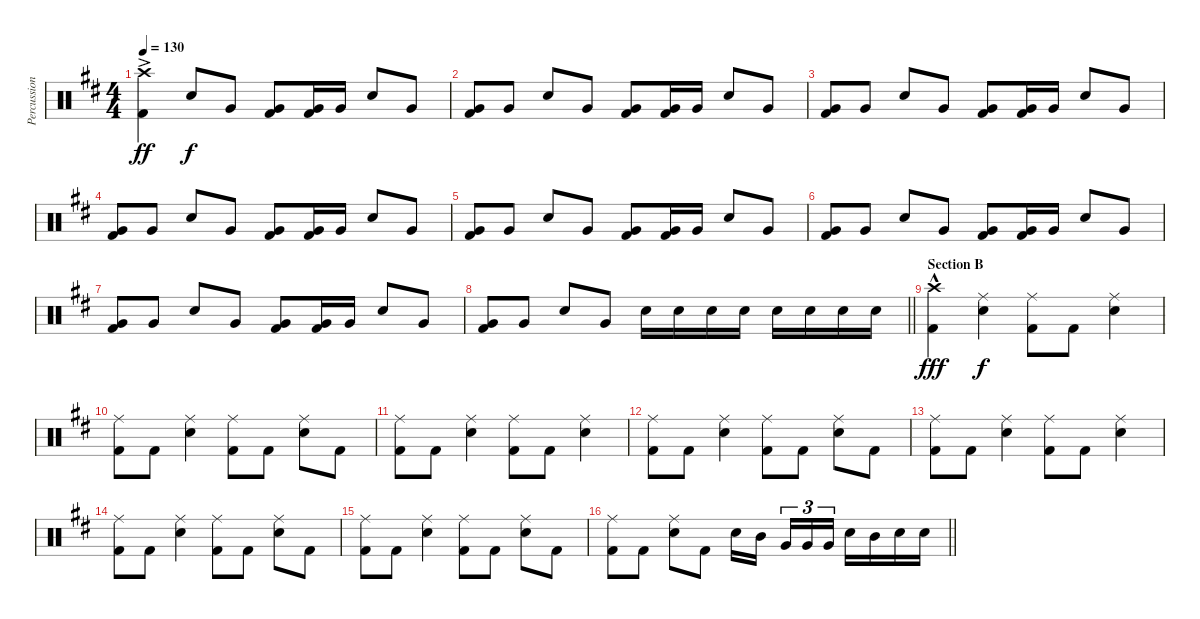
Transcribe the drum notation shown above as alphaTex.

\track ("Percussion" "Percussion") {instrument percussion}
\staff {score}
\articulation defaults
\ts (4 4)
\tempo 130
\clef neutral
\ks d
("Crash high (hit)"{ac} "Kick (hit) 2").4{dy ff} "Snare (hit) 2".8{dy f} "Very Low Tom (hit)".8 ("Very Low Tom (hit)" "Kick (hit) 2").8 ("Very Low Tom (hit)" "Kick (hit) 2").16 "Very Low Tom (hit)".16 "Snare (hit) 2".8 "Very Low Tom (hit)".8 |
("Very Low Tom (hit)" "Kick (hit) 2").8 "Very Low Tom (hit)".8 "Snare (hit) 2".8 "Very Low Tom (hit)".8 ("Very Low Tom (hit)" "Kick (hit) 2").8 ("Very Low Tom (hit)" "Kick (hit) 2").16 "Very Low Tom (hit)".16 "Snare (hit) 2".8 "Very Low Tom (hit)".8 |
("Very Low Tom (hit)" "Kick (hit) 2").8 "Very Low Tom (hit)".8 "Snare (hit) 2".8 "Very Low Tom (hit)".8 ("Very Low Tom (hit)" "Kick (hit) 2").8 ("Very Low Tom (hit)" "Kick (hit) 2").16 "Very Low Tom (hit)".16 "Snare (hit) 2".8 "Very Low Tom (hit)".8 |
("Very Low Tom (hit)" "Kick (hit) 2").8 "Very Low Tom (hit)".8 "Snare (hit) 2".8 "Very Low Tom (hit)".8 ("Very Low Tom (hit)" "Kick (hit) 2").8 ("Very Low Tom (hit)" "Kick (hit) 2").16 "Very Low Tom (hit)".16 "Snare (hit) 2".8 "Very Low Tom (hit)".8 |
("Very Low Tom (hit)" "Kick (hit) 2").8 "Very Low Tom (hit)".8 "Snare (hit) 2".8 "Very Low Tom (hit)".8 ("Very Low Tom (hit)" "Kick (hit) 2").8 ("Very Low Tom (hit)" "Kick (hit) 2").16 "Very Low Tom (hit)".16 "Snare (hit) 2".8 "Very Low Tom (hit)".8 |
("Very Low Tom (hit)" "Kick (hit) 2").8 "Very Low Tom (hit)".8 "Snare (hit) 2".8 "Very Low Tom (hit)".8 ("Very Low Tom (hit)" "Kick (hit) 2").8 ("Very Low Tom (hit)" "Kick (hit) 2").16 "Very Low Tom (hit)".16 "Snare (hit) 2".8 "Very Low Tom (hit)".8 |
("Very Low Tom (hit)" "Kick (hit) 2").8 "Very Low Tom (hit)".8 "Snare (hit) 2".8 "Very Low Tom (hit)".8 ("Very Low Tom (hit)" "Kick (hit) 2").8 ("Very Low Tom (hit)" "Kick (hit) 2").16 "Very Low Tom (hit)".16 "Snare (hit) 2".8 "Very Low Tom (hit)".8 |
\barLineRight lightlight
("Very Low Tom (hit)" "Kick (hit) 2").8 "Very Low Tom (hit)".8 "Snare (hit) 2".8 "Very Low Tom (hit)".8 "Snare (hit) 2".16 "Snare (hit) 2".16 "Snare (hit) 2".16 "Snare (hit) 2".16 "Snare (hit) 2".16 "Snare (hit) 2".16 "Snare (hit) 2".16 "Snare (hit) 2".16 |
\section ("" "Section B")
("Crash high (hit)" "Kick (hit) 2"{hac}).4{dy fff} ("Ride (middle)" "Snare (hit) 2").4{dy f} ("Ride (middle)" "Kick (hit) 2").8 "Kick (hit) 2".8 ("Ride (middle)" "Snare (hit) 2").4 |
("Ride (middle)" "Kick (hit) 2").8 "Kick (hit) 2".8 ("Ride (middle)" "Snare (hit) 2").4 ("Ride (middle)" "Kick (hit) 2").8 "Kick (hit) 2".8 ("Ride (middle)" "Snare (hit) 2").8 "Kick (hit) 2".8 |
("Ride (middle)" "Kick (hit) 2").8 "Kick (hit) 2".8 ("Ride (middle)" "Snare (hit) 2").4 ("Ride (middle)" "Kick (hit) 2").8 "Kick (hit) 2".8 ("Ride (middle)" "Snare (hit) 2").4 |
("Ride (middle)" "Kick (hit) 2").8 "Kick (hit) 2".8 ("Ride (middle)" "Snare (hit) 2").4 ("Ride (middle)" "Kick (hit) 2").8 "Kick (hit) 2".8 ("Ride (middle)" "Snare (hit) 2").8 "Kick (hit) 2".8 |
("Ride (middle)" "Kick (hit) 2").8 "Kick (hit) 2".8 ("Ride (middle)" "Snare (hit) 2").4 ("Ride (middle)" "Kick (hit) 2").8 "Kick (hit) 2".8 ("Ride (middle)" "Snare (hit) 2").4 |
("Ride (middle)" "Kick (hit) 2").8 "Kick (hit) 2".8 ("Ride (middle)" "Snare (hit) 2").4 ("Ride (middle)" "Kick (hit) 2").8 "Kick (hit) 2".8 ("Ride (middle)" "Snare (hit) 2").8 "Kick (hit) 2".8 |
("Ride (middle)" "Kick (hit) 2").8 "Kick (hit) 2".8 ("Ride (middle)" "Snare (hit) 2").4 ("Ride (middle)" "Kick (hit) 2").8 "Kick (hit) 2".8 ("Ride (middle)" "Snare (hit) 2").8 "Kick (hit) 2".8 |
\barLineRight lightlight
("Ride (middle)" "Kick (hit) 2").8 "Kick (hit) 2".8 ("Ride (middle)" "Snare (hit) 2").8 "Kick (hit) 2".8 "Snare (hit) 2".16 "Mid Tom (hit)".16{beam splitsecondary} "Very Low Tom (hit)".16{tu (3 2)} "Very Low Tom (hit)".16{tu (3 2)} "Very Low Tom (hit)".16{tu (3 2)} "Snare (hit) 2".16 "Mid Tom (hit)".16 "Snare (hit) 2".16 "Snare (hit) 2".16
